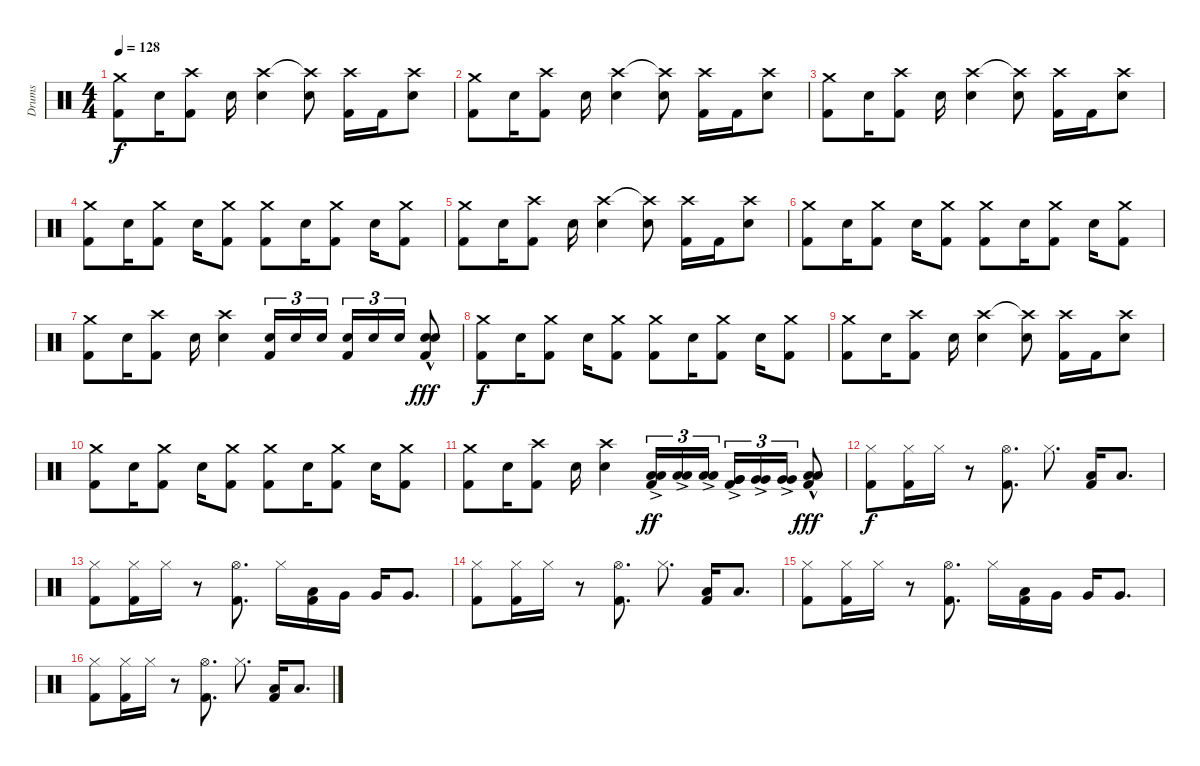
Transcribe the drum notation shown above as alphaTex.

\track ("Drums" "Drums") {instrument percussion}
\staff {score}
\articulation defaults
\ts (4 4)
\tempo 128
\clef neutral
\ks c
("Crash medium (hit)" "Kick (hit) 2").8{dy f} "Snare (hit) 2".16 ("Crash high (hit)" "Kick (hit) 2").8 "Snare (hit) 2".16 ("Crash high (hit)" "Snare (hit) 2").4 ("Crash high (hit)"{t} "Snare (hit) 2").8 ("Crash high (hit)" "Kick (hit) 2").16 "Kick (hit) 2".16 ("Crash high (hit)" "Snare (hit) 2").8 |
("Crash medium (hit)" "Kick (hit) 2").8 "Snare (hit) 2".16 ("Crash high (hit)" "Kick (hit) 2").8 "Snare (hit) 2".16 ("Crash high (hit)" "Snare (hit) 2").4 ("Crash high (hit)"{t} "Snare (hit) 2").8 ("Crash high (hit)" "Kick (hit) 2").16 "Kick (hit) 2".16 ("Crash high (hit)" "Snare (hit) 2").8 |
("Crash medium (hit)" "Kick (hit) 2").8 "Snare (hit) 2".16 ("Crash high (hit)" "Kick (hit) 2").8 "Snare (hit) 2".16 ("Crash high (hit)" "Snare (hit) 2").4 ("Crash high (hit)"{t} "Snare (hit) 2").8 ("Crash high (hit)" "Kick (hit) 2").16 "Kick (hit) 2".16 ("Crash high (hit)" "Snare (hit) 2").8 |
("Crash medium (hit)" "Kick (hit) 2").8 "Snare (hit) 2".16 ("Crash medium (hit)" "Kick (hit) 2").8 "Snare (hit) 2".16 ("Crash medium (hit)" "Kick (hit) 2").8 ("Crash medium (hit)" "Kick (hit) 2").8 "Snare (hit) 2".16 ("Crash medium (hit)" "Kick (hit) 2").8 "Snare (hit) 2".16 ("Crash medium (hit)" "Kick (hit) 2").8 |
("Crash medium (hit)" "Kick (hit) 2").8 "Snare (hit) 2".16 ("Crash high (hit)" "Kick (hit) 2").8 "Snare (hit) 2".16 ("Crash high (hit)" "Snare (hit) 2").4 ("Crash high (hit)"{t} "Snare (hit) 2").8 ("Crash high (hit)" "Kick (hit) 2").16 "Kick (hit) 2".16 ("Crash high (hit)" "Snare (hit) 2").8 |
("Crash medium (hit)" "Kick (hit) 2").8 "Snare (hit) 2".16 ("Crash medium (hit)" "Kick (hit) 2").8 "Snare (hit) 2".16 ("Crash medium (hit)" "Kick (hit) 2").8 ("Crash medium (hit)" "Kick (hit) 2").8 "Snare (hit) 2".16 ("Crash medium (hit)" "Kick (hit) 2").8 "Snare (hit) 2".16 ("Crash medium (hit)" "Kick (hit) 2").8 |
("Crash medium (hit)" "Kick (hit) 2").8 "Snare (hit) 2".16 ("Crash high (hit)" "Kick (hit) 2").8 "Snare (hit) 2".16 ("Crash high (hit)" "Snare (hit) 2").4 ("Snare (hit) 2" "Kick (hit) 2").16{tu (3 2)} "Snare (hit) 2".16{tu (3 2)} "Snare (hit) 2".16{tu (3 2)} ("Snare (hit) 2" "Kick (hit) 2").16{tu (3 2)} "Snare (hit) 2".16{tu (3 2)} "Snare (hit) 2".16{tu (3 2)} ("Snare (hit) 2"{hac} "Snare (hit) 2" "Kick (hit) 2").8{dy fff} |
("Crash medium (hit)" "Kick (hit) 2").8{dy f} "Snare (hit) 2".16 ("Crash medium (hit)" "Kick (hit) 2").8 "Snare (hit) 2".16 ("Crash medium (hit)" "Kick (hit) 2").8 ("Crash medium (hit)" "Kick (hit) 2").8 "Snare (hit) 2".16 ("Crash medium (hit)" "Kick (hit) 2").8 "Snare (hit) 2".16 ("Crash medium (hit)" "Kick (hit) 2").8 |
("Crash medium (hit)" "Kick (hit) 2").8 "Snare (hit) 2".16 ("Crash high (hit)" "Kick (hit) 2").8 "Snare (hit) 2".16 ("Crash high (hit)" "Snare (hit) 2").4 ("Crash high (hit)"{t} "Snare (hit) 2").8 ("Crash high (hit)" "Kick (hit) 2").16 "Kick (hit) 2".16 ("Crash high (hit)" "Snare (hit) 2").8 |
("Crash medium (hit)" "Kick (hit) 2").8 "Snare (hit) 2".16 ("Crash medium (hit)" "Kick (hit) 2").8 "Snare (hit) 2".16 ("Crash medium (hit)" "Kick (hit) 2").8 ("Crash medium (hit)" "Kick (hit) 2").8 "Snare (hit) 2".16 ("Crash medium (hit)" "Kick (hit) 2").8 "Snare (hit) 2".16 ("Crash medium (hit)" "Kick (hit) 2").8 |
("Crash medium (hit)" "Kick (hit) 2").8 "Snare (hit) 2".16 ("Crash high (hit)" "Kick (hit) 2").8 "Snare (hit) 2".16 ("Crash high (hit)" "Snare (hit) 2").4 ("Low Floor Tom (hit)"{ac} "Low Floor Tom (hit)" "Kick (hit) 2").16{tu (3 2) dy ff} ("Low Floor Tom (hit)"{ac} "Low Floor Tom (hit)").16{tu (3 2)} ("Low Floor Tom (hit)"{ac} "Low Floor Tom (hit)").16{tu (3 2)} ("Very Low Tom (hit)"{ac} "Very Low Tom (hit)" "Kick (hit) 2").16{tu (3 2)} ("Very Low Tom (hit)"{ac} "Very Low Tom (hit)").16{tu (3 2)} ("Very Low Tom (hit)"{ac} "Very Low Tom (hit)").16{tu (3 2)} ("Low Tom (hit)"{hac} "Low Tom (hit)" "Kick (hit) 2").8{dy fff} |
("Hi-Hat (closed)" "Kick (hit) 2").8{dy f} ("Hi-Hat (closed)" "Kick (hit) 2").16 "Hi-Hat (closed)".16 r.8 ("Hi-Hat (open)" "Kick (hit) 2").8{d} "Hi-Hat (closed)".8{d} ("Low Tom (hit)" "Kick (hit) 2").16 "Low Tom (hit)".8{d} |
("Hi-Hat (closed)" "Kick (hit) 2").8 ("Hi-Hat (closed)" "Kick (hit) 2").16 "Hi-Hat (closed)".16 r.8 ("Hi-Hat (open)" "Kick (hit) 2").8{d} "Hi-Hat (closed)".16 ("Low Tom (hit)" "Kick (hit) 2").16 "Very Low Tom (hit)".16 "Very Low Tom (hit)".16 "Very Low Tom (hit)".8{d} |
("Hi-Hat (closed)" "Kick (hit) 2").8 ("Hi-Hat (closed)" "Kick (hit) 2").16 "Hi-Hat (closed)".16 r.8 ("Hi-Hat (open)" "Kick (hit) 2").8{d} "Hi-Hat (closed)".8{d} ("Low Tom (hit)" "Kick (hit) 2").16 "Low Tom (hit)".8{d} |
("Hi-Hat (closed)" "Kick (hit) 2").8 ("Hi-Hat (closed)" "Kick (hit) 2").16 "Hi-Hat (closed)".16 r.8 ("Hi-Hat (open)" "Kick (hit) 2").8{d} "Hi-Hat (closed)".16 ("Low Tom (hit)" "Kick (hit) 2").16 "Very Low Tom (hit)".16 "Very Low Tom (hit)".16 "Very Low Tom (hit)".8{d} |
("Hi-Hat (closed)" "Kick (hit) 2").8 ("Hi-Hat (closed)" "Kick (hit) 2").16 "Hi-Hat (closed)".16 r.8 ("Hi-Hat (open)" "Kick (hit) 2").8{d} "Hi-Hat (closed)".8{d} ("Low Tom (hit)" "Kick (hit) 2").16 "Low Tom (hit)".8{d}
